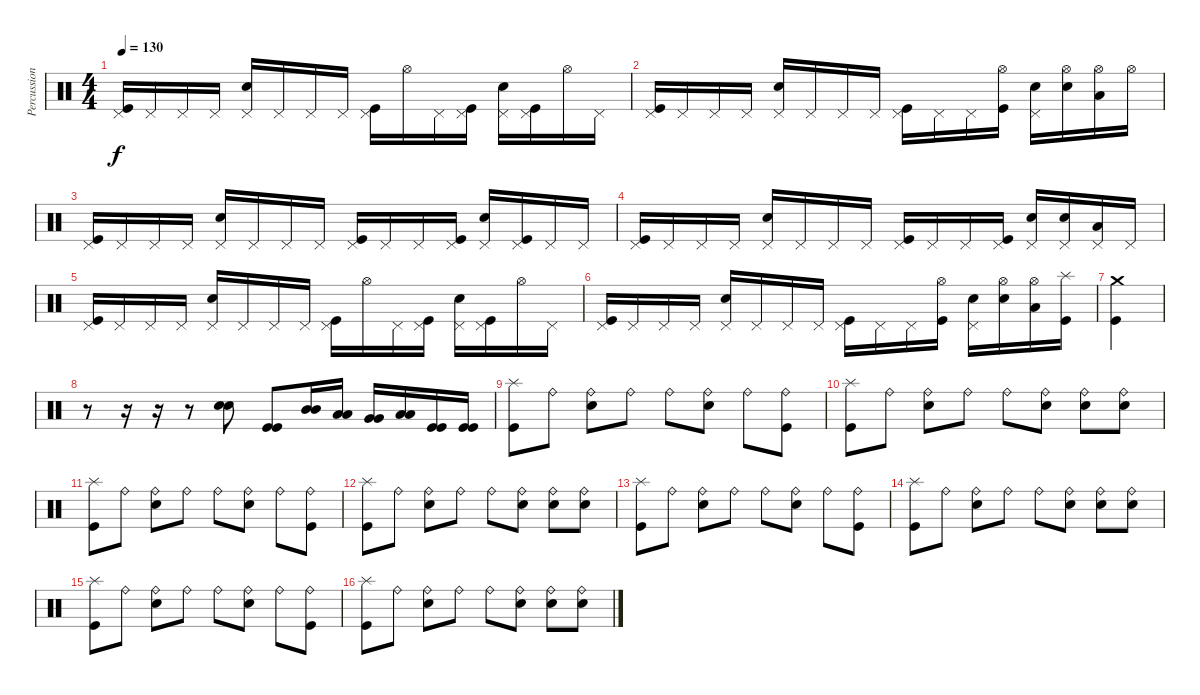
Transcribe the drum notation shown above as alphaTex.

\track ("Percussion" "Percussion") {instrument percussion}
\staff {score}
\articulation defaults
\ts (4 4)
\tempo 130
\clef neutral
\ks c
("Pedal Hi-Hat (hit)" "Kick (hit)").16{dy f} "Pedal Hi-Hat (hit)".16 "Pedal Hi-Hat (hit)".16 "Pedal Hi-Hat (hit)".16 ("Pedal Hi-Hat (hit)" "Electric Snare (hit)").16 "Pedal Hi-Hat (hit)".16 "Pedal Hi-Hat (hit)".16 "Pedal Hi-Hat (hit)".16 ("Pedal Hi-Hat (hit)" "Kick (hit)").16 "Hi-Hat (open)".16 "Pedal Hi-Hat (hit)".16 ("Pedal Hi-Hat (hit)" "Kick (hit)").16 ("Pedal Hi-Hat (hit)" "Electric Snare (hit)").16 ("Pedal Hi-Hat (hit)" "Kick (hit)").16 "Hi-Hat (open)".16 "Pedal Hi-Hat (hit)".16 |
("Pedal Hi-Hat (hit)" "Kick (hit)").16 "Pedal Hi-Hat (hit)".16 "Pedal Hi-Hat (hit)".16 "Pedal Hi-Hat (hit)".16 ("Pedal Hi-Hat (hit)" "Electric Snare (hit)").16 "Pedal Hi-Hat (hit)".16 "Pedal Hi-Hat (hit)".16 "Pedal Hi-Hat (hit)".16 ("Pedal Hi-Hat (hit)" "Kick (hit)").16 "Pedal Hi-Hat (hit)".16 "Pedal Hi-Hat (hit)".16 ("Hi-Hat (open)" "Kick (hit)").16 ("Pedal Hi-Hat (hit)" "Electric Snare (hit)").16 ("Hi-Hat (open)" "Electric Snare (hit)").16 ("Hi-Hat (open)" "Low Tom (hit)").16 "Hi-Hat (open)".16 |
("Pedal Hi-Hat (hit)" "Kick (hit)").16 "Pedal Hi-Hat (hit)".16 "Pedal Hi-Hat (hit)".16 "Pedal Hi-Hat (hit)".16 ("Pedal Hi-Hat (hit)" "Electric Snare (hit)").16 "Pedal Hi-Hat (hit)".16 "Pedal Hi-Hat (hit)".16 "Pedal Hi-Hat (hit)".16 ("Pedal Hi-Hat (hit)" "Kick (hit)").16 "Pedal Hi-Hat (hit)".16 "Pedal Hi-Hat (hit)".16 ("Pedal Hi-Hat (hit)" "Kick (hit)").16 ("Pedal Hi-Hat (hit)" "Electric Snare (hit)").16 ("Pedal Hi-Hat (hit)" "Kick (hit)").16 "Pedal Hi-Hat (hit)".16 "Pedal Hi-Hat (hit)".16 |
("Pedal Hi-Hat (hit)" "Kick (hit)").16 "Pedal Hi-Hat (hit)".16 "Pedal Hi-Hat (hit)".16 "Pedal Hi-Hat (hit)".16 ("Pedal Hi-Hat (hit)" "Electric Snare (hit)").16 "Pedal Hi-Hat (hit)".16 "Pedal Hi-Hat (hit)".16 "Pedal Hi-Hat (hit)".16 ("Pedal Hi-Hat (hit)" "Kick (hit)").16 "Pedal Hi-Hat (hit)".16 "Pedal Hi-Hat (hit)".16 ("Pedal Hi-Hat (hit)" "Kick (hit)").16 ("Pedal Hi-Hat (hit)" "Electric Snare (hit)").16 ("Pedal Hi-Hat (hit)" "Electric Snare (hit)").16 ("Pedal Hi-Hat (hit)" "Low Tom (hit)").16 "Pedal Hi-Hat (hit)".16 |
("Pedal Hi-Hat (hit)" "Kick (hit)").16 "Pedal Hi-Hat (hit)".16 "Pedal Hi-Hat (hit)".16 "Pedal Hi-Hat (hit)".16 ("Pedal Hi-Hat (hit)" "Electric Snare (hit)").16 "Pedal Hi-Hat (hit)".16 "Pedal Hi-Hat (hit)".16 "Pedal Hi-Hat (hit)".16 ("Pedal Hi-Hat (hit)" "Kick (hit)").16 "Hi-Hat (open)".16 "Pedal Hi-Hat (hit)".16 ("Pedal Hi-Hat (hit)" "Kick (hit)").16 ("Pedal Hi-Hat (hit)" "Electric Snare (hit)").16 ("Pedal Hi-Hat (hit)" "Kick (hit)").16 "Hi-Hat (open)".16 "Pedal Hi-Hat (hit)".16 |
("Pedal Hi-Hat (hit)" "Kick (hit)").16 "Pedal Hi-Hat (hit)".16 "Pedal Hi-Hat (hit)".16 "Pedal Hi-Hat (hit)".16 ("Pedal Hi-Hat (hit)" "Electric Snare (hit)").16 "Pedal Hi-Hat (hit)".16 "Pedal Hi-Hat (hit)".16 "Pedal Hi-Hat (hit)".16 ("Pedal Hi-Hat (hit)" "Kick (hit)").16 "Pedal Hi-Hat (hit)".16 "Pedal Hi-Hat (hit)".16 ("Hi-Hat (open)" "Kick (hit)").16 ("Pedal Hi-Hat (hit)" "Electric Snare (hit)").16 ("Hi-Hat (open)" "Electric Snare (hit)").16 ("Hi-Hat (open)" "Low Tom (hit)").16 ("Splash (hit)" "Kick (hit)").16 |
("Crash medium (hit)" "Kick (hit)").4 |
r.8 r.16 r.16 r.8 ("Electric Snare (hit)" "Electric Snare (hit)").8 ("Kick (hit)" "Kick (hit)").8 ("Mid Tom (hit)" "Mid Tom (hit)").16 ("Low Tom (hit)" "Low Tom (hit)").16 ("Very Low Tom (hit)" "Very Low Tom (hit)").16 ("Low Floor Tom (hit)" "Low Floor Tom (hit)").16 ("Kick (hit)" "Kick (hit)").16 ("Kick (hit)" "Kick (hit)").16 |
("Splash (hit)" "Kick (hit)").8 "Ride (bell)".8 ("Ride (bell)" "Electric Snare (hit)").8 "Ride (bell)".8 "Ride (bell)".8 ("Ride (bell)" "Electric Snare (hit)").8 "Ride (bell)".8 ("Ride (bell)" "Kick (hit)").8 |
("Splash (hit)" "Kick (hit)").8 "Ride (bell)".8 ("Ride (bell)" "Electric Snare (hit)").8 "Ride (bell)".8 "Ride (bell)".8 ("Ride (bell)" "Electric Snare (hit)").8 ("Ride (bell)" "Electric Snare (hit)").8 ("Ride (bell)" "Electric Snare (hit)").8 |
("Splash (hit)" "Kick (hit)").8 "Ride (bell)".8 ("Ride (bell)" "Electric Snare (hit)").8 "Ride (bell)".8 "Ride (bell)".8 ("Ride (bell)" "Electric Snare (hit)").8 "Ride (bell)".8 ("Ride (bell)" "Kick (hit)").8 |
("Splash (hit)" "Kick (hit)").8 "Ride (bell)".8 ("Ride (bell)" "Electric Snare (hit)").8 "Ride (bell)".8 "Ride (bell)".8 ("Ride (bell)" "Electric Snare (hit)").8 ("Ride (bell)" "Electric Snare (hit)").8 ("Ride (bell)" "Electric Snare (hit)").8 |
("Splash (hit)" "Kick (hit)").8 "Ride (bell)".8 ("Ride (bell)" "Electric Snare (hit)").8 "Ride (bell)".8 "Ride (bell)".8 ("Ride (bell)" "Electric Snare (hit)").8 "Ride (bell)".8 ("Ride (bell)" "Kick (hit)").8 |
("Splash (hit)" "Kick (hit)").8 "Ride (bell)".8 ("Ride (bell)" "Electric Snare (hit)").8 "Ride (bell)".8 "Ride (bell)".8 ("Ride (bell)" "Electric Snare (hit)").8 ("Ride (bell)" "Electric Snare (hit)").8 ("Ride (bell)" "Electric Snare (hit)").8 |
("Splash (hit)" "Kick (hit)").8 "Ride (bell)".8 ("Ride (bell)" "Electric Snare (hit)").8 "Ride (bell)".8 "Ride (bell)".8 ("Ride (bell)" "Electric Snare (hit)").8 "Ride (bell)".8 ("Ride (bell)" "Kick (hit)").8 |
("Splash (hit)" "Kick (hit)").8 "Ride (bell)".8 ("Ride (bell)" "Electric Snare (hit)").8 "Ride (bell)".8 "Ride (bell)".8 ("Ride (bell)" "Electric Snare (hit)").8 ("Ride (bell)" "Electric Snare (hit)").8 ("Ride (bell)" "Electric Snare (hit)").8
